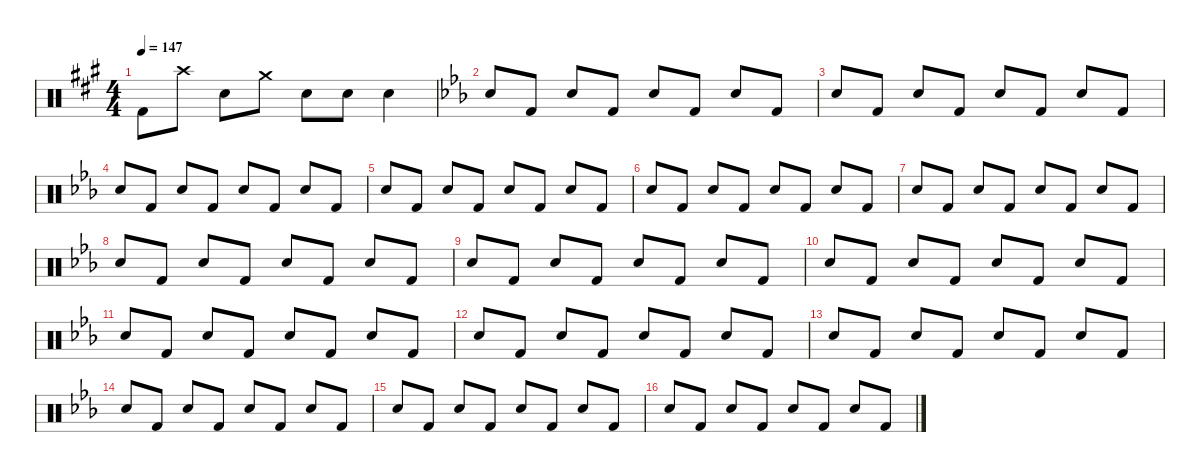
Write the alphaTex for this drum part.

\defaultSystemsLayout 4
\hideDynamics
\bracketExtendMode nobrackets
\singleTrackTrackNamePolicy hidden
\multiTrackTrackNamePolicy hidden
\firstSystemTrackNameMode fullname
\firstSystemTrackNameOrientation horizontal
\otherSystemsTrackNameOrientation horizontal
\track ("Beats" "drm.") {instrument percussion}
\staff {score}
\articulation defaults
\ts (4 4)
\tempo 147
\clef neutral
\ks a "Kick (hit) 2"{acc forcenatural}.8{dy f beam Down} "Crash high (hit)"{acc forcenatural}.8{beam Down} "Snare (hit) 2"{acc forcenatural}.8{beam Down} "Crash medium (hit)"{acc forcenatural}.8{beam Down} "Snare (hit) 2"{acc forcenatural}.8{beam Down} "Snare (hit) 2"{acc forcenatural}.8{beam Down} "Snare (hit) 2"{acc forcenatural}.4{beam Down}
|
\ks eb "Snare (hit) 2"{acc forcenatural}.8{beam Up} "Kick (hit) 2"{acc forcenatural}.8{beam Up} "Snare (hit) 2"{acc forcenatural}.8{beam Up} "Kick (hit) 2"{acc forcenatural}.8{beam Up} "Snare (hit) 2"{acc forcenatural}.8{beam Up} "Kick (hit) 2"{acc forcenatural}.8{beam Up} "Snare (hit) 2"{acc forcenatural}.8{beam Up} "Kick (hit) 2"{acc forcenatural}.8{beam Up}
|
"Snare (hit) 2"{acc forcenatural}.8{beam Up} "Kick (hit) 2"{acc forcenatural}.8{beam Up} "Snare (hit) 2"{acc forcenatural}.8{beam Up} "Kick (hit) 2"{acc forcenatural}.8{beam Up} "Snare (hit) 2"{acc forcenatural}.8{beam Up} "Kick (hit) 2"{acc forcenatural}.8{beam Up} "Snare (hit) 2"{acc forcenatural}.8{beam Up} "Kick (hit) 2"{acc forcenatural}.8{beam Up} |
"Snare (hit) 2"{acc forcenatural}.8{beam Up} "Kick (hit) 2"{acc forcenatural}.8{beam Up} "Snare (hit) 2"{acc forcenatural}.8{beam Up} "Kick (hit) 2"{acc forcenatural}.8{beam Up} "Snare (hit) 2"{acc forcenatural}.8{beam Up} "Kick (hit) 2"{acc forcenatural}.8{beam Up} "Snare (hit) 2"{acc forcenatural}.8{beam Up} "Kick (hit) 2"{acc forcenatural}.8{beam Up} |
"Snare (hit) 2"{acc forcenatural}.8{beam Up} "Kick (hit) 2"{acc forcenatural}.8{beam Up} "Snare (hit) 2"{acc forcenatural}.8{beam Up} "Kick (hit) 2"{acc forcenatural}.8{beam Up} "Snare (hit) 2"{acc forcenatural}.8{beam Up} "Kick (hit) 2"{acc forcenatural}.8{beam Up} "Snare (hit) 2"{acc forcenatural}.8{beam Up} "Kick (hit) 2"{acc forcenatural}.8{beam Up} |
"Snare (hit) 2"{acc forcenatural}.8{beam Up} "Kick (hit) 2"{acc forcenatural}.8{beam Up} "Snare (hit) 2"{acc forcenatural}.8{beam Up} "Kick (hit) 2"{acc forcenatural}.8{beam Up} "Snare (hit) 2"{acc forcenatural}.8{beam Up} "Kick (hit) 2"{acc forcenatural}.8{beam Up} "Snare (hit) 2"{acc forcenatural}.8{beam Up} "Kick (hit) 2"{acc forcenatural}.8{beam Up} |
"Snare (hit) 2"{acc forcenatural}.8{beam Up} "Kick (hit) 2"{acc forcenatural}.8{beam Up} "Snare (hit) 2"{acc forcenatural}.8{beam Up} "Kick (hit) 2"{acc forcenatural}.8{beam Up} "Snare (hit) 2"{acc forcenatural}.8{beam Up} "Kick (hit) 2"{acc forcenatural}.8{beam Up} "Snare (hit) 2"{acc forcenatural}.8{beam Up} "Kick (hit) 2"{acc forcenatural}.8{beam Up} |
"Snare (hit) 2"{acc forcenatural}.8{beam Up} "Kick (hit) 2"{acc forcenatural}.8{beam Up} "Snare (hit) 2"{acc forcenatural}.8{beam Up} "Kick (hit) 2"{acc forcenatural}.8{beam Up} "Snare (hit) 2"{acc forcenatural}.8{beam Up} "Kick (hit) 2"{acc forcenatural}.8{beam Up} "Snare (hit) 2"{acc forcenatural}.8{beam Up} "Kick (hit) 2"{acc forcenatural}.8{beam Up} |
"Snare (hit) 2"{acc forcenatural}.8{beam Up} "Kick (hit) 2"{acc forcenatural}.8{beam Up} "Snare (hit) 2"{acc forcenatural}.8{beam Up} "Kick (hit) 2"{acc forcenatural}.8{beam Up} "Snare (hit) 2"{acc forcenatural}.8{beam Up} "Kick (hit) 2"{acc forcenatural}.8{beam Up} "Snare (hit) 2"{acc forcenatural}.8{beam Up} "Kick (hit) 2"{acc forcenatural}.8{beam Up} |
"Snare (hit) 2"{acc forcenatural}.8{beam Up} "Kick (hit) 2"{acc forcenatural}.8{beam Up} "Snare (hit) 2"{acc forcenatural}.8{beam Up} "Kick (hit) 2"{acc forcenatural}.8{beam Up} "Snare (hit) 2"{acc forcenatural}.8{beam Up} "Kick (hit) 2"{acc forcenatural}.8{beam Up} "Snare (hit) 2"{acc forcenatural}.8{beam Up} "Kick (hit) 2"{acc forcenatural}.8{beam Up} |
"Snare (hit) 2"{acc forcenatural}.8{beam Up} "Kick (hit) 2"{acc forcenatural}.8{beam Up} "Snare (hit) 2"{acc forcenatural}.8{beam Up} "Kick (hit) 2"{acc forcenatural}.8{beam Up} "Snare (hit) 2"{acc forcenatural}.8{beam Up} "Kick (hit) 2"{acc forcenatural}.8{beam Up} "Snare (hit) 2"{acc forcenatural}.8{beam Up} "Kick (hit) 2"{acc forcenatural}.8{beam Up} |
"Snare (hit) 2"{acc forcenatural}.8{beam Up} "Kick (hit) 2"{acc forcenatural}.8{beam Up} "Snare (hit) 2"{acc forcenatural}.8{beam Up} "Kick (hit) 2"{acc forcenatural}.8{beam Up} "Snare (hit) 2"{acc forcenatural}.8{beam Up} "Kick (hit) 2"{acc forcenatural}.8{beam Up} "Snare (hit) 2"{acc forcenatural}.8{beam Up} "Kick (hit) 2"{acc forcenatural}.8{beam Up} |
"Snare (hit) 2"{acc forcenatural}.8{beam Up} "Kick (hit) 2"{acc forcenatural}.8{beam Up} "Snare (hit) 2"{acc forcenatural}.8{beam Up} "Kick (hit) 2"{acc forcenatural}.8{beam Up} "Snare (hit) 2"{acc forcenatural}.8{beam Up} "Kick (hit) 2"{acc forcenatural}.8{beam Up} "Snare (hit) 2"{acc forcenatural}.8{beam Up} "Kick (hit) 2"{acc forcenatural}.8{beam Up} |
"Snare (hit) 2"{acc forcenatural}.8{beam Up} "Kick (hit) 2"{acc forcenatural}.8{beam Up} "Snare (hit) 2"{acc forcenatural}.8{beam Up} "Kick (hit) 2"{acc forcenatural}.8{beam Up} "Snare (hit) 2"{acc forcenatural}.8{beam Up} "Kick (hit) 2"{acc forcenatural}.8{beam Up} "Snare (hit) 2"{acc forcenatural}.8{beam Up} "Kick (hit) 2"{acc forcenatural}.8{beam Up} |
"Snare (hit) 2"{acc forcenatural}.8{beam Up} "Kick (hit) 2"{acc forcenatural}.8{beam Up} "Snare (hit) 2"{acc forcenatural}.8{beam Up} "Kick (hit) 2"{acc forcenatural}.8{beam Up} "Snare (hit) 2"{acc forcenatural}.8{beam Up} "Kick (hit) 2"{acc forcenatural}.8{beam Up} "Snare (hit) 2"{acc forcenatural}.8{beam Up} "Kick (hit) 2"{acc forcenatural}.8{beam Up} |
"Snare (hit) 2"{acc forcenatural}.8{beam Up} "Kick (hit) 2"{acc forcenatural}.8{beam Up} "Snare (hit) 2"{acc forcenatural}.8{beam Up} "Kick (hit) 2"{acc forcenatural}.8{beam Up} "Snare (hit) 2"{acc forcenatural}.8{beam Up} "Kick (hit) 2"{acc forcenatural}.8{beam Up} "Snare (hit) 2"{acc forcenatural}.8{beam Up} "Kick (hit) 2"{acc forcenatural}.8{beam Up}
